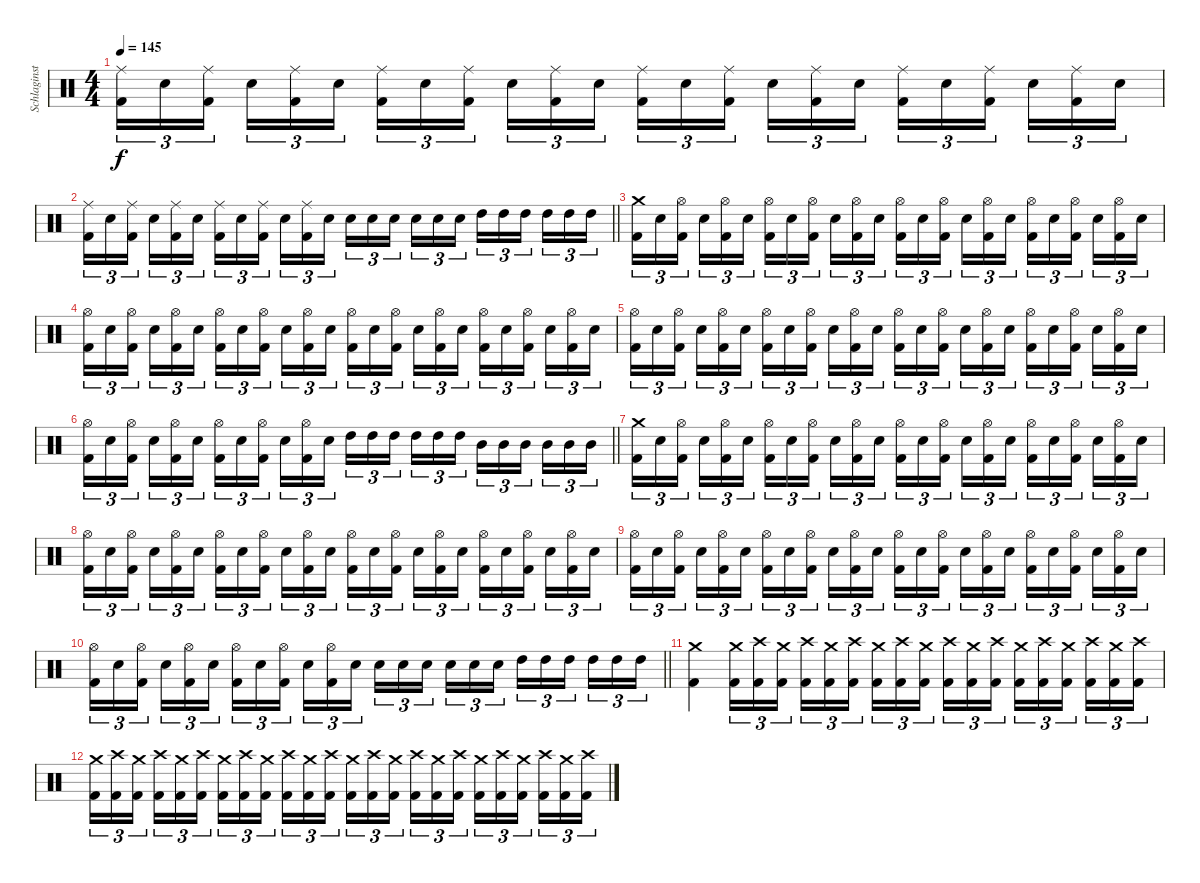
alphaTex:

\track ("Schlaginstrumente - Auswahl" "Schlaginst") {instrument percussion}
\staff {score}
\articulation defaults
\ts (4 4)
\tempo 145
\clef neutral
\ks c
("Ride (middle)" "Kick (hit) 2").16{tu (3 2) dy f} "Electric Snare (hit)".16{tu (3 2)} ("Ride (middle)" "Kick (hit) 2").16{tu (3 2) beam splitsecondary} "Electric Snare (hit)".16{tu (3 2)} ("Ride (middle)" "Kick (hit) 2").16{tu (3 2)} "Electric Snare (hit)".16{tu (3 2)} ("Ride (middle)" "Kick (hit) 2").16{tu (3 2)} "Electric Snare (hit)".16{tu (3 2)} ("Ride (middle)" "Kick (hit) 2").16{tu (3 2) beam splitsecondary} "Electric Snare (hit)".16{tu (3 2)} ("Ride (middle)" "Kick (hit) 2").16{tu (3 2)} "Electric Snare (hit)".16{tu (3 2)} ("Ride (middle)" "Kick (hit) 2").16{tu (3 2)} "Electric Snare (hit)".16{tu (3 2)} ("Ride (middle)" "Kick (hit) 2").16{tu (3 2) beam splitsecondary} "Electric Snare (hit)".16{tu (3 2)} ("Ride (middle)" "Kick (hit) 2").16{tu (3 2)} "Electric Snare (hit)".16{tu (3 2)} ("Ride (middle)" "Kick (hit) 2").16{tu (3 2)} "Electric Snare (hit)".16{tu (3 2)} ("Ride (middle)" "Kick (hit) 2").16{tu (3 2) beam splitsecondary} "Electric Snare (hit)".16{tu (3 2)} ("Ride (middle)" "Kick (hit) 2").16{tu (3 2)} "Electric Snare (hit)".16{tu (3 2)} |
\barLineRight lightlight
("Ride (middle)" "Kick (hit) 2").16{tu (3 2)} "Electric Snare (hit)".16{tu (3 2)} ("Ride (middle)" "Kick (hit) 2").16{tu (3 2) beam splitsecondary} "Electric Snare (hit)".16{tu (3 2)} ("Ride (middle)" "Kick (hit) 2").16{tu (3 2)} "Electric Snare (hit)".16{tu (3 2)} ("Ride (middle)" "Kick (hit) 2").16{tu (3 2)} "Electric Snare (hit)".16{tu (3 2)} ("Ride (middle)" "Kick (hit) 2").16{tu (3 2) beam splitsecondary} "Electric Snare (hit)".16{tu (3 2)} ("Ride (middle)" "Kick (hit) 2").16{tu (3 2)} "Electric Snare (hit)".16{tu (3 2)} "Electric Snare (hit)".16{tu (3 2)} "Electric Snare (hit)".16{tu (3 2)} "Electric Snare (hit)".16{tu (3 2) beam splitsecondary} "Electric Snare (hit)".16{tu (3 2)} "Electric Snare (hit)".16{tu (3 2)} "Electric Snare (hit)".16{tu (3 2)} "High Tom (hit)".16{tu (3 2)} "High Tom (hit)".16{tu (3 2)} "High Tom (hit)".16{tu (3 2) beam splitsecondary} "High Tom (hit)".16{tu (3 2)} "High Tom (hit)".16{tu (3 2)} "High Tom (hit)".16{tu (3 2)} |
("Crash medium (hit)" "Kick (hit) 2").16{tu (3 2)} "Electric Snare (hit)".16{tu (3 2)} ("Hi-Hat (open)" "Kick (hit) 2").16{tu (3 2) beam splitsecondary} "Electric Snare (hit)".16{tu (3 2)} ("Hi-Hat (open)" "Kick (hit) 2").16{tu (3 2)} "Electric Snare (hit)".16{tu (3 2)} ("Hi-Hat (open)" "Kick (hit) 2").16{tu (3 2)} "Electric Snare (hit)".16{tu (3 2)} ("Hi-Hat (open)" "Kick (hit) 2").16{tu (3 2) beam splitsecondary} "Electric Snare (hit)".16{tu (3 2)} ("Hi-Hat (open)" "Kick (hit) 2").16{tu (3 2)} "Electric Snare (hit)".16{tu (3 2)} ("Hi-Hat (open)" "Kick (hit) 2").16{tu (3 2)} "Electric Snare (hit)".16{tu (3 2)} ("Hi-Hat (open)" "Kick (hit) 2").16{tu (3 2) beam splitsecondary} "Electric Snare (hit)".16{tu (3 2)} ("Hi-Hat (open)" "Kick (hit) 2").16{tu (3 2)} "Electric Snare (hit)".16{tu (3 2)} ("Hi-Hat (open)" "Kick (hit) 2").16{tu (3 2)} "Electric Snare (hit)".16{tu (3 2)} ("Hi-Hat (open)" "Kick (hit) 2").16{tu (3 2) beam splitsecondary} "Electric Snare (hit)".16{tu (3 2)} ("Hi-Hat (open)" "Kick (hit) 2").16{tu (3 2)} "Electric Snare (hit)".16{tu (3 2)} |
("Hi-Hat (open)" "Kick (hit) 2").16{tu (3 2)} "Electric Snare (hit)".16{tu (3 2)} ("Hi-Hat (open)" "Kick (hit) 2").16{tu (3 2) beam splitsecondary} "Electric Snare (hit)".16{tu (3 2)} ("Hi-Hat (open)" "Kick (hit) 2").16{tu (3 2)} "Electric Snare (hit)".16{tu (3 2)} ("Hi-Hat (open)" "Kick (hit) 2").16{tu (3 2)} "Electric Snare (hit)".16{tu (3 2)} ("Hi-Hat (open)" "Kick (hit) 2").16{tu (3 2) beam splitsecondary} "Electric Snare (hit)".16{tu (3 2)} ("Hi-Hat (open)" "Kick (hit) 2").16{tu (3 2)} "Electric Snare (hit)".16{tu (3 2)} ("Hi-Hat (open)" "Kick (hit) 2").16{tu (3 2)} "Electric Snare (hit)".16{tu (3 2)} ("Hi-Hat (open)" "Kick (hit) 2").16{tu (3 2) beam splitsecondary} "Electric Snare (hit)".16{tu (3 2)} ("Hi-Hat (open)" "Kick (hit) 2").16{tu (3 2)} "Electric Snare (hit)".16{tu (3 2)} ("Hi-Hat (open)" "Kick (hit) 2").16{tu (3 2)} "Electric Snare (hit)".16{tu (3 2)} ("Hi-Hat (open)" "Kick (hit) 2").16{tu (3 2) beam splitsecondary} "Electric Snare (hit)".16{tu (3 2)} ("Hi-Hat (open)" "Kick (hit) 2").16{tu (3 2)} "Electric Snare (hit)".16{tu (3 2)} |
("Hi-Hat (open)" "Kick (hit) 2").16{tu (3 2)} "Electric Snare (hit)".16{tu (3 2)} ("Hi-Hat (open)" "Kick (hit) 2").16{tu (3 2) beam splitsecondary} "Electric Snare (hit)".16{tu (3 2)} ("Hi-Hat (open)" "Kick (hit) 2").16{tu (3 2)} "Electric Snare (hit)".16{tu (3 2)} ("Hi-Hat (open)" "Kick (hit) 2").16{tu (3 2)} "Electric Snare (hit)".16{tu (3 2)} ("Hi-Hat (open)" "Kick (hit) 2").16{tu (3 2) beam splitsecondary} "Electric Snare (hit)".16{tu (3 2)} ("Hi-Hat (open)" "Kick (hit) 2").16{tu (3 2)} "Electric Snare (hit)".16{tu (3 2)} ("Hi-Hat (open)" "Kick (hit) 2").16{tu (3 2)} "Electric Snare (hit)".16{tu (3 2)} ("Hi-Hat (open)" "Kick (hit) 2").16{tu (3 2) beam splitsecondary} "Electric Snare (hit)".16{tu (3 2)} ("Hi-Hat (open)" "Kick (hit) 2").16{tu (3 2)} "Electric Snare (hit)".16{tu (3 2)} ("Hi-Hat (open)" "Kick (hit) 2").16{tu (3 2)} "Electric Snare (hit)".16{tu (3 2)} ("Hi-Hat (open)" "Kick (hit) 2").16{tu (3 2) beam splitsecondary} "Electric Snare (hit)".16{tu (3 2)} ("Hi-Hat (open)" "Kick (hit) 2").16{tu (3 2)} "Electric Snare (hit)".16{tu (3 2)} |
\barLineRight lightlight
("Hi-Hat (open)" "Kick (hit) 2").16{tu (3 2)} "Electric Snare (hit)".16{tu (3 2)} ("Hi-Hat (open)" "Kick (hit) 2").16{tu (3 2) beam splitsecondary} "Electric Snare (hit)".16{tu (3 2)} ("Hi-Hat (open)" "Kick (hit) 2").16{tu (3 2)} "Electric Snare (hit)".16{tu (3 2)} ("Hi-Hat (open)" "Kick (hit) 2").16{tu (3 2)} "Electric Snare (hit)".16{tu (3 2)} ("Hi-Hat (open)" "Kick (hit) 2").16{tu (3 2) beam splitsecondary} "Electric Snare (hit)".16{tu (3 2)} ("Hi-Hat (open)" "Kick (hit) 2").16{tu (3 2)} "Electric Snare (hit)".16{tu (3 2)} "High Tom (hit)".16{tu (3 2)} "High Tom (hit)".16{tu (3 2)} "High Tom (hit)".16{tu (3 2) beam splitsecondary} "High Tom (hit)".16{tu (3 2)} "High Tom (hit)".16{tu (3 2)} "High Tom (hit)".16{tu (3 2)} "Mid Tom (hit)".16{tu (3 2)} "Mid Tom (hit)".16{tu (3 2)} "Mid Tom (hit)".16{tu (3 2) beam splitsecondary} "Mid Tom (hit)".16{tu (3 2)} "Mid Tom (hit)".16{tu (3 2)} "Mid Tom (hit)".16{tu (3 2)} |
("Crash medium (hit)" "Kick (hit) 2").16{tu (3 2)} "Electric Snare (hit)".16{tu (3 2)} ("Hi-Hat (open)" "Kick (hit) 2").16{tu (3 2) beam splitsecondary} "Electric Snare (hit)".16{tu (3 2)} ("Hi-Hat (open)" "Kick (hit) 2").16{tu (3 2)} "Electric Snare (hit)".16{tu (3 2)} ("Hi-Hat (open)" "Kick (hit) 2").16{tu (3 2)} "Electric Snare (hit)".16{tu (3 2)} ("Hi-Hat (open)" "Kick (hit) 2").16{tu (3 2) beam splitsecondary} "Electric Snare (hit)".16{tu (3 2)} ("Hi-Hat (open)" "Kick (hit) 2").16{tu (3 2)} "Electric Snare (hit)".16{tu (3 2)} ("Hi-Hat (open)" "Kick (hit) 2").16{tu (3 2)} "Electric Snare (hit)".16{tu (3 2)} ("Hi-Hat (open)" "Kick (hit) 2").16{tu (3 2) beam splitsecondary} "Electric Snare (hit)".16{tu (3 2)} ("Hi-Hat (open)" "Kick (hit) 2").16{tu (3 2)} "Electric Snare (hit)".16{tu (3 2)} ("Hi-Hat (open)" "Kick (hit) 2").16{tu (3 2)} "Electric Snare (hit)".16{tu (3 2)} ("Hi-Hat (open)" "Kick (hit) 2").16{tu (3 2) beam splitsecondary} "Electric Snare (hit)".16{tu (3 2)} ("Hi-Hat (open)" "Kick (hit) 2").16{tu (3 2)} "Electric Snare (hit)".16{tu (3 2)} |
("Hi-Hat (open)" "Kick (hit) 2").16{tu (3 2)} "Electric Snare (hit)".16{tu (3 2)} ("Hi-Hat (open)" "Kick (hit) 2").16{tu (3 2) beam splitsecondary} "Electric Snare (hit)".16{tu (3 2)} ("Hi-Hat (open)" "Kick (hit) 2").16{tu (3 2)} "Electric Snare (hit)".16{tu (3 2)} ("Hi-Hat (open)" "Kick (hit) 2").16{tu (3 2)} "Electric Snare (hit)".16{tu (3 2)} ("Hi-Hat (open)" "Kick (hit) 2").16{tu (3 2) beam splitsecondary} "Electric Snare (hit)".16{tu (3 2)} ("Hi-Hat (open)" "Kick (hit) 2").16{tu (3 2)} "Electric Snare (hit)".16{tu (3 2)} ("Hi-Hat (open)" "Kick (hit) 2").16{tu (3 2)} "Electric Snare (hit)".16{tu (3 2)} ("Hi-Hat (open)" "Kick (hit) 2").16{tu (3 2) beam splitsecondary} "Electric Snare (hit)".16{tu (3 2)} ("Hi-Hat (open)" "Kick (hit) 2").16{tu (3 2)} "Electric Snare (hit)".16{tu (3 2)} ("Hi-Hat (open)" "Kick (hit) 2").16{tu (3 2)} "Electric Snare (hit)".16{tu (3 2)} ("Hi-Hat (open)" "Kick (hit) 2").16{tu (3 2) beam splitsecondary} "Electric Snare (hit)".16{tu (3 2)} ("Hi-Hat (open)" "Kick (hit) 2").16{tu (3 2)} "Electric Snare (hit)".16{tu (3 2)} |
("Hi-Hat (open)" "Kick (hit) 2").16{tu (3 2)} "Electric Snare (hit)".16{tu (3 2)} ("Hi-Hat (open)" "Kick (hit) 2").16{tu (3 2) beam splitsecondary} "Electric Snare (hit)".16{tu (3 2)} ("Hi-Hat (open)" "Kick (hit) 2").16{tu (3 2)} "Electric Snare (hit)".16{tu (3 2)} ("Hi-Hat (open)" "Kick (hit) 2").16{tu (3 2)} "Electric Snare (hit)".16{tu (3 2)} ("Hi-Hat (open)" "Kick (hit) 2").16{tu (3 2) beam splitsecondary} "Electric Snare (hit)".16{tu (3 2)} ("Hi-Hat (open)" "Kick (hit) 2").16{tu (3 2)} "Electric Snare (hit)".16{tu (3 2)} ("Hi-Hat (open)" "Kick (hit) 2").16{tu (3 2)} "Electric Snare (hit)".16{tu (3 2)} ("Hi-Hat (open)" "Kick (hit) 2").16{tu (3 2) beam splitsecondary} "Electric Snare (hit)".16{tu (3 2)} ("Hi-Hat (open)" "Kick (hit) 2").16{tu (3 2)} "Electric Snare (hit)".16{tu (3 2)} ("Hi-Hat (open)" "Kick (hit) 2").16{tu (3 2)} "Electric Snare (hit)".16{tu (3 2)} ("Hi-Hat (open)" "Kick (hit) 2").16{tu (3 2) beam splitsecondary} "Electric Snare (hit)".16{tu (3 2)} ("Hi-Hat (open)" "Kick (hit) 2").16{tu (3 2)} "Electric Snare (hit)".16{tu (3 2)} |
\barLineRight lightlight
("Hi-Hat (open)" "Kick (hit) 2").16{tu (3 2)} "Electric Snare (hit)".16{tu (3 2)} ("Hi-Hat (open)" "Kick (hit) 2").16{tu (3 2) beam splitsecondary} "Electric Snare (hit)".16{tu (3 2)} ("Hi-Hat (open)" "Kick (hit) 2").16{tu (3 2)} "Electric Snare (hit)".16{tu (3 2)} ("Hi-Hat (open)" "Kick (hit) 2").16{tu (3 2)} "Electric Snare (hit)".16{tu (3 2)} ("Hi-Hat (open)" "Kick (hit) 2").16{tu (3 2) beam splitsecondary} "Electric Snare (hit)".16{tu (3 2)} ("Hi-Hat (open)" "Kick (hit) 2").16{tu (3 2)} "Electric Snare (hit)".16{tu (3 2)} "Electric Snare (hit)".16{tu (3 2)} "Electric Snare (hit)".16{tu (3 2)} "Electric Snare (hit)".16{tu (3 2) beam splitsecondary} "Electric Snare (hit)".16{tu (3 2)} "Electric Snare (hit)".16{tu (3 2)} "Electric Snare (hit)".16{tu (3 2)} "High Tom (hit)".16{tu (3 2)} "High Tom (hit)".16{tu (3 2)} "High Tom (hit)".16{tu (3 2) beam splitsecondary} "High Tom (hit)".16{tu (3 2)} "High Tom (hit)".16{tu (3 2)} "High Tom (hit)".16{tu (3 2)} |
("Crash medium (hit)" "Kick (hit) 2").4 ("Crash medium (hit)" "Kick (hit) 2").16{tu (3 2)} ("Crash high (hit)" "Kick (hit) 2").16{tu (3 2)} ("Crash medium (hit)" "Kick (hit) 2").16{tu (3 2) beam splitsecondary} ("Crash high (hit)" "Kick (hit) 2").16{tu (3 2)} ("Crash medium (hit)" "Kick (hit) 2").16{tu (3 2)} ("Crash high (hit)" "Kick (hit) 2").16{tu (3 2)} ("Crash medium (hit)" "Kick (hit) 2").16{tu (3 2)} ("Crash high (hit)" "Kick (hit) 2").16{tu (3 2)} ("Crash medium (hit)" "Kick (hit) 2").16{tu (3 2) beam splitsecondary} ("Crash high (hit)" "Kick (hit) 2").16{tu (3 2)} ("Crash medium (hit)" "Kick (hit) 2").16{tu (3 2)} ("Crash high (hit)" "Kick (hit) 2").16{tu (3 2)} ("Crash medium (hit)" "Kick (hit) 2").16{tu (3 2)} ("Crash high (hit)" "Kick (hit) 2").16{tu (3 2)} ("Crash medium (hit)" "Kick (hit) 2").16{tu (3 2) beam splitsecondary} ("Crash high (hit)" "Kick (hit) 2").16{tu (3 2)} ("Crash medium (hit)" "Kick (hit) 2").16{tu (3 2)} ("Crash high (hit)" "Kick (hit) 2").16{tu (3 2)} |
("Crash medium (hit)" "Kick (hit) 2").16{tu (3 2)} ("Crash high (hit)" "Kick (hit) 2").16{tu (3 2)} ("Crash medium (hit)" "Kick (hit) 2").16{tu (3 2) beam splitsecondary} ("Crash high (hit)" "Kick (hit) 2").16{tu (3 2)} ("Crash medium (hit)" "Kick (hit) 2").16{tu (3 2)} ("Crash high (hit)" "Kick (hit) 2").16{tu (3 2)} ("Crash medium (hit)" "Kick (hit) 2").16{tu (3 2)} ("Crash high (hit)" "Kick (hit) 2").16{tu (3 2)} ("Crash medium (hit)" "Kick (hit) 2").16{tu (3 2) beam splitsecondary} ("Crash high (hit)" "Kick (hit) 2").16{tu (3 2)} ("Crash medium (hit)" "Kick (hit) 2").16{tu (3 2)} ("Crash high (hit)" "Kick (hit) 2").16{tu (3 2)} ("Crash medium (hit)" "Kick (hit) 2").16{tu (3 2)} ("Crash high (hit)" "Kick (hit) 2").16{tu (3 2)} ("Crash medium (hit)" "Kick (hit) 2").16{tu (3 2) beam splitsecondary} ("Crash high (hit)" "Kick (hit) 2").16{tu (3 2)} ("Crash medium (hit)" "Kick (hit) 2").16{tu (3 2)} ("Crash high (hit)" "Kick (hit) 2").16{tu (3 2)} ("Crash medium (hit)" "Kick (hit) 2").16{tu (3 2)} ("Crash high (hit)" "Kick (hit) 2").16{tu (3 2)} ("Crash medium (hit)" "Kick (hit) 2").16{tu (3 2) beam splitsecondary} ("Crash high (hit)" "Kick (hit) 2").16{tu (3 2)} ("Crash medium (hit)" "Kick (hit) 2").16{tu (3 2)} ("Crash high (hit)" "Kick (hit) 2").16{tu (3 2)}
